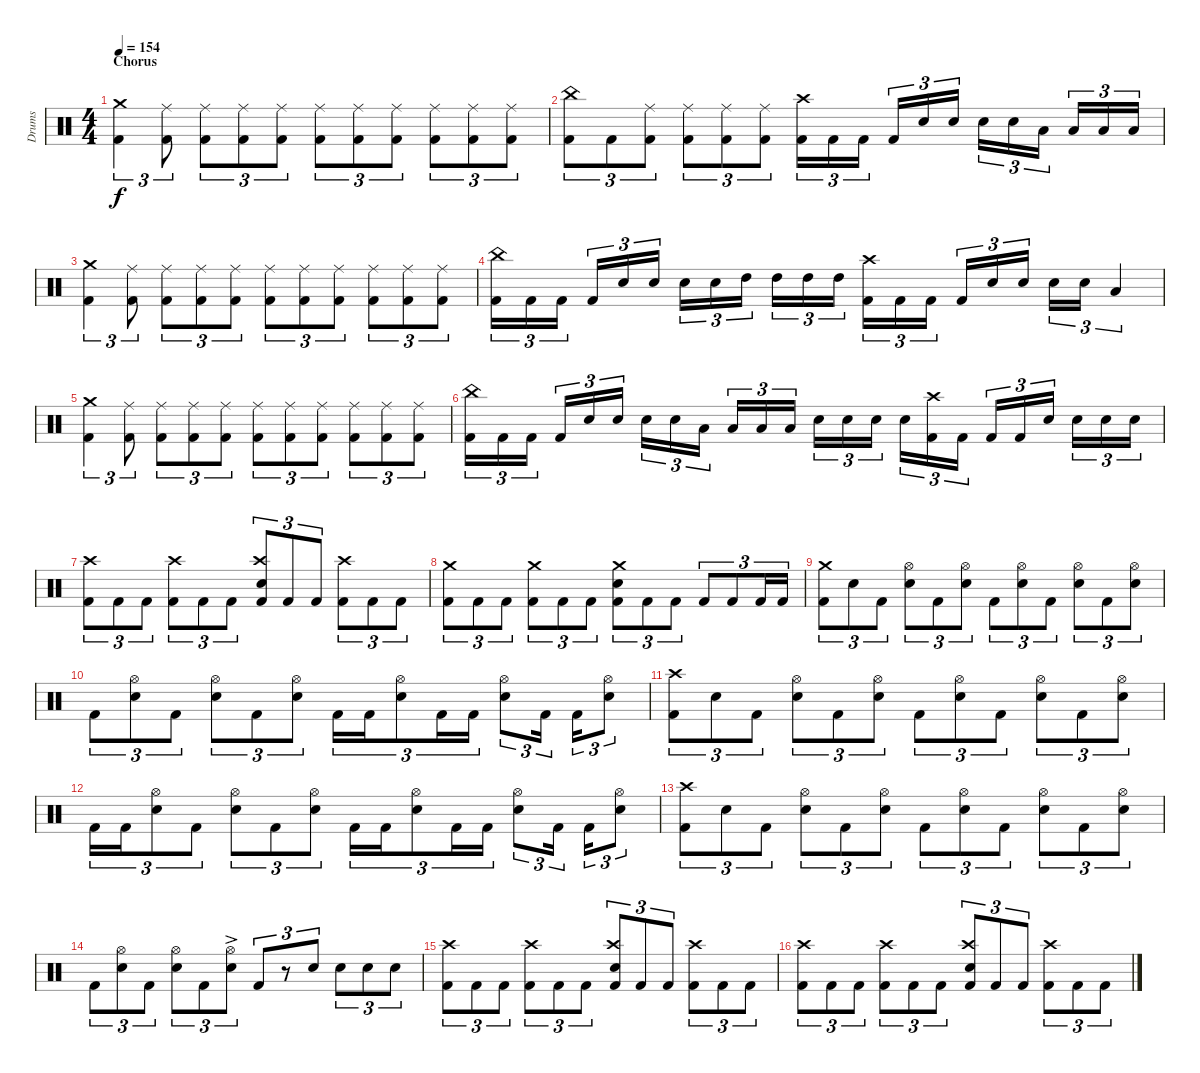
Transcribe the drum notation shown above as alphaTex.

\track ("Drums" "Drums") {instrument percussion}
\staff {score}
\articulation defaults
\ts (4 4)
\section ("" "Chorus")
\tempo 154
\clef neutral
\ks c
("Crash medium (hit)" "Kick (hit) 2").4{tu (3 2) dy f} ("Ride (middle)" "Kick (hit) 2").8{tu (3 2)} ("Ride (middle)" "Kick (hit) 2").8{tu (3 2)} ("Ride (middle)" "Kick (hit) 2").8{tu (3 2)} ("Ride (middle)" "Kick (hit) 2").8{tu (3 2)} ("Ride (middle)" "Kick (hit) 2").8{tu (3 2)} ("Ride (middle)" "Kick (hit) 2").8{tu (3 2)} ("Ride (middle)" "Kick (hit) 2").8{tu (3 2)} ("Ride (middle)" "Kick (hit) 2").8{tu (3 2)} ("Ride (middle)" "Kick (hit) 2").8{tu (3 2)} ("Ride (middle)" "Kick (hit) 2").8{tu (3 2)} |
("China (hit)" "Kick (hit) 2").8{tu (3 2)} "Kick (hit) 2".8{tu (3 2)} ("Ride (middle)" "Kick (hit) 2").8{tu (3 2)} ("Ride (middle)" "Kick (hit) 2").8{tu (3 2)} ("Ride (middle)" "Kick (hit) 2").8{tu (3 2)} ("Ride (middle)" "Kick (hit) 2").8{tu (3 2)} ("Crash high (hit)" "Kick (hit) 2").16{tu (3 2)} "Kick (hit) 2".16{tu (3 2)} "Kick (hit) 2".16{tu (3 2)} "Kick (hit) 2".16{tu (3 2)} "Snare (hit) 2".16{tu (3 2)} "Snare (hit) 2".16{tu (3 2)} "Snare (hit) 2".16{tu (3 2)} "Snare (hit) 2".16{tu (3 2)} "Low Tom (hit)".16{tu (3 2)} "Low Tom (hit)".16{tu (3 2)} "Low Tom (hit)".16{tu (3 2)} "Low Tom (hit)".16{tu (3 2)} |
("Crash medium (hit)" "Kick (hit) 2").4{tu (3 2)} ("Ride (middle)" "Kick (hit) 2").8{tu (3 2)} ("Ride (middle)" "Kick (hit) 2").8{tu (3 2)} ("Ride (middle)" "Kick (hit) 2").8{tu (3 2)} ("Ride (middle)" "Kick (hit) 2").8{tu (3 2)} ("Ride (middle)" "Kick (hit) 2").8{tu (3 2)} ("Ride (middle)" "Kick (hit) 2").8{tu (3 2)} ("Ride (middle)" "Kick (hit) 2").8{tu (3 2)} ("Ride (middle)" "Kick (hit) 2").8{tu (3 2)} ("Ride (middle)" "Kick (hit) 2").8{tu (3 2)} ("Ride (middle)" "Kick (hit) 2").8{tu (3 2)} |
("China (hit)" "Kick (hit) 2").16{tu (3 2)} "Kick (hit) 2".16{tu (3 2)} "Kick (hit) 2".16{tu (3 2)} "Kick (hit) 2".16{tu (3 2)} "Snare (hit) 2".16{tu (3 2)} "Snare (hit) 2".16{tu (3 2)} "Snare (hit) 2".16{tu (3 2)} "Snare (hit) 2".16{tu (3 2)} "High Tom (hit)".16{tu (3 2)} "High Tom (hit)".16{tu (3 2)} "High Tom (hit)".16{tu (3 2)} "High Tom (hit)".16{tu (3 2)} ("Crash high (hit)" "Kick (hit) 2").16{tu (3 2)} "Kick (hit) 2".16{tu (3 2)} "Kick (hit) 2".16{tu (3 2)} "Kick (hit) 2".16{tu (3 2)} "Snare (hit) 2".16{tu (3 2)} "Snare (hit) 2".16{tu (3 2)} "Snare (hit) 2".16{tu (3 2)} "Snare (hit) 2".16{tu (3 2)} "Low Tom (hit)".4{tu (3 2)} |
("Crash medium (hit)" "Kick (hit) 2").4{tu (3 2)} ("Ride (middle)" "Kick (hit) 2").8{tu (3 2)} ("Ride (middle)" "Kick (hit) 2").8{tu (3 2)} ("Ride (middle)" "Kick (hit) 2").8{tu (3 2)} ("Ride (middle)" "Kick (hit) 2").8{tu (3 2)} ("Ride (middle)" "Kick (hit) 2").8{tu (3 2)} ("Ride (middle)" "Kick (hit) 2").8{tu (3 2)} ("Ride (middle)" "Kick (hit) 2").8{tu (3 2)} ("Ride (middle)" "Kick (hit) 2").8{tu (3 2)} ("Ride (middle)" "Kick (hit) 2").8{tu (3 2)} ("Ride (middle)" "Kick (hit) 2").8{tu (3 2)} |
("China (hit)" "Kick (hit) 2").16{tu (3 2)} "Kick (hit) 2".16{tu (3 2)} "Kick (hit) 2".16{tu (3 2)} "Kick (hit) 2".16{tu (3 2)} "Snare (hit) 2".16{tu (3 2)} "Snare (hit) 2".16{tu (3 2)} "Snare (hit) 2".16{tu (3 2)} "Snare (hit) 2".16{tu (3 2)} "Low Tom (hit)".16{tu (3 2)} "Low Tom (hit)".16{tu (3 2)} "Low Tom (hit)".16{tu (3 2)} "Low Tom (hit)".16{tu (3 2)} "Snare (hit) 2".16{tu (3 2)} "Snare (hit) 2".16{tu (3 2)} "Snare (hit) 2".16{tu (3 2)} "Snare (hit) 2".16{tu (3 2)} ("Crash high (hit)" "Kick (hit) 2").16{tu (3 2)} "Kick (hit) 2".16{tu (3 2)} "Kick (hit) 2".16{tu (3 2)} "Kick (hit) 2".16{tu (3 2)} "Snare (hit) 2".16{tu (3 2)} "Snare (hit) 2".16{tu (3 2)} "Snare (hit) 2".16{tu (3 2)} "Snare (hit) 2".16{tu (3 2)} |
("Crash high (hit)" "Kick (hit) 2").8{tu (3 2)} "Kick (hit) 2".8{tu (3 2)} "Kick (hit) 2".8{tu (3 2)} ("Crash high (hit)" "Kick (hit) 2").8{tu (3 2)} "Kick (hit) 2".8{tu (3 2)} "Kick (hit) 2".8{tu (3 2)} ("Crash high (hit)" "Snare (hit) 2" "Kick (hit) 2").8{tu (3 2)} "Kick (hit) 2".8{tu (3 2)} "Kick (hit) 2".8{tu (3 2)} ("Crash high (hit)" "Kick (hit) 2").8{tu (3 2)} "Kick (hit) 2".8{tu (3 2)} "Kick (hit) 2".8{tu (3 2)} |
("Crash medium (hit)" "Kick (hit) 2").8{tu (3 2)} "Kick (hit) 2".8{tu (3 2)} "Kick (hit) 2".8{tu (3 2)} ("Crash medium (hit)" "Kick (hit) 2").8{tu (3 2)} "Kick (hit) 2".8{tu (3 2)} "Kick (hit) 2".8{tu (3 2)} ("Crash medium (hit)" "Snare (hit) 2" "Kick (hit) 2").8{tu (3 2)} "Kick (hit) 2".8{tu (3 2)} "Kick (hit) 2".8{tu (3 2)} "Kick (hit) 2".8{tu (3 2)} "Kick (hit) 2".8{tu (3 2)} "Kick (hit) 2".16{tu (3 2)} "Kick (hit) 2".16{tu (3 2)} |
("Crash medium (hit)" "Kick (hit) 2").8{tu (3 2)} "Snare (hit) 2".8{tu (3 2)} "Kick (hit) 2".8{tu (3 2)} ("Hi-Hat (open)" "Snare (hit) 2").8{tu (3 2)} "Kick (hit) 2".8{tu (3 2)} ("Hi-Hat (open)" "Snare (hit) 2").8{tu (3 2)} "Kick (hit) 2".8{tu (3 2)} ("Hi-Hat (open)" "Snare (hit) 2").8{tu (3 2)} "Kick (hit) 2".8{tu (3 2)} ("Hi-Hat (open)" "Snare (hit) 2").8{tu (3 2)} "Kick (hit) 2".8{tu (3 2)} ("Hi-Hat (open)" "Snare (hit) 2").8{tu (3 2)} |
"Kick (hit) 2".8{tu (3 2)} ("Hi-Hat (open)" "Snare (hit) 2").8{tu (3 2)} "Kick (hit) 2".8{tu (3 2)} ("Hi-Hat (open)" "Snare (hit) 2").8{tu (3 2)} "Kick (hit) 2".8{tu (3 2)} ("Hi-Hat (open)" "Snare (hit) 2").8{tu (3 2)} "Kick (hit) 2".16{tu (3 2)} "Kick (hit) 2".16{tu (3 2)} ("Hi-Hat (open)" "Snare (hit) 2").8{tu (3 2)} "Kick (hit) 2".16{tu (3 2)} "Kick (hit) 2".16{tu (3 2)} ("Hi-Hat (open)" "Snare (hit) 2").8{tu (3 2)} "Kick (hit) 2".16{tu (3 2)} "Kick (hit) 2".16{tu (3 2)} ("Hi-Hat (open)" "Snare (hit) 2").8{tu (3 2)} |
("Crash high (hit)" "Kick (hit) 2").8{tu (3 2)} "Snare (hit) 2".8{tu (3 2)} "Kick (hit) 2".8{tu (3 2)} ("Hi-Hat (open)" "Snare (hit) 2").8{tu (3 2)} "Kick (hit) 2".8{tu (3 2)} ("Hi-Hat (open)" "Snare (hit) 2").8{tu (3 2)} "Kick (hit) 2".8{tu (3 2)} ("Hi-Hat (open)" "Snare (hit) 2").8{tu (3 2)} "Kick (hit) 2".8{tu (3 2)} ("Hi-Hat (open)" "Snare (hit) 2").8{tu (3 2)} "Kick (hit) 2".8{tu (3 2)} ("Hi-Hat (open)" "Snare (hit) 2").8{tu (3 2)} |
"Kick (hit) 2".16{tu (3 2)} "Kick (hit) 2".16{tu (3 2)} ("Hi-Hat (open)" "Snare (hit) 2").8{tu (3 2)} "Kick (hit) 2".8{tu (3 2)} ("Hi-Hat (open)" "Snare (hit) 2").8{tu (3 2)} "Kick (hit) 2".8{tu (3 2)} ("Hi-Hat (open)" "Snare (hit) 2").8{tu (3 2)} "Kick (hit) 2".16{tu (3 2)} "Kick (hit) 2".16{tu (3 2)} ("Hi-Hat (open)" "Snare (hit) 2").8{tu (3 2)} "Kick (hit) 2".16{tu (3 2)} "Kick (hit) 2".16{tu (3 2)} ("Hi-Hat (open)" "Snare (hit) 2").8{tu (3 2)} "Kick (hit) 2".16{tu (3 2)} "Kick (hit) 2".16{tu (3 2)} ("Hi-Hat (open)" "Snare (hit) 2").8{tu (3 2)} |
("Crash high (hit)" "Kick (hit) 2").8{tu (3 2)} "Snare (hit) 2".8{tu (3 2)} "Kick (hit) 2".8{tu (3 2)} ("Hi-Hat (open)" "Snare (hit) 2").8{tu (3 2)} "Kick (hit) 2".8{tu (3 2)} ("Hi-Hat (open)" "Snare (hit) 2").8{tu (3 2)} "Kick (hit) 2".8{tu (3 2)} ("Hi-Hat (open)" "Snare (hit) 2").8{tu (3 2)} "Kick (hit) 2".8{tu (3 2)} ("Hi-Hat (open)" "Snare (hit) 2").8{tu (3 2)} "Kick (hit) 2".8{tu (3 2)} ("Hi-Hat (open)" "Snare (hit) 2").8{tu (3 2)} |
"Kick (hit) 2".8{tu (3 2)} ("Hi-Hat (open)" "Snare (hit) 2").8{tu (3 2)} "Kick (hit) 2".8{tu (3 2)} ("Hi-Hat (open)" "Snare (hit) 2").8{tu (3 2)} "Kick (hit) 2".8{tu (3 2)} ("Hi-Hat (open)" "Snare (hit) 2"{ac}).8{tu (3 2)} "Kick (hit) 2".8{tu (3 2)} r.8{tu (3 2)} "Snare (hit) 2".8{tu (3 2)} "Snare (hit) 2".8{tu (3 2)} "Snare (hit) 2".8{tu (3 2)} "Snare (hit) 2".8{tu (3 2)} |
("Crash high (hit)" "Kick (hit) 2").8{tu (3 2)} "Kick (hit) 2".8{tu (3 2)} "Kick (hit) 2".8{tu (3 2)} ("Crash high (hit)" "Kick (hit) 2").8{tu (3 2)} "Kick (hit) 2".8{tu (3 2)} "Kick (hit) 2".8{tu (3 2)} ("Crash high (hit)" "Snare (hit) 2" "Kick (hit) 2").8{tu (3 2)} "Kick (hit) 2".8{tu (3 2)} "Kick (hit) 2".8{tu (3 2)} ("Crash high (hit)" "Kick (hit) 2").8{tu (3 2)} "Kick (hit) 2".8{tu (3 2)} "Kick (hit) 2".8{tu (3 2)} |
("Crash high (hit)" "Kick (hit) 2").8{tu (3 2)} "Kick (hit) 2".8{tu (3 2)} "Kick (hit) 2".8{tu (3 2)} ("Crash high (hit)" "Kick (hit) 2").8{tu (3 2)} "Kick (hit) 2".8{tu (3 2)} "Kick (hit) 2".8{tu (3 2)} ("Crash high (hit)" "Snare (hit) 2" "Kick (hit) 2").8{tu (3 2)} "Kick (hit) 2".8{tu (3 2)} "Kick (hit) 2".8{tu (3 2)} ("Crash high (hit)" "Kick (hit) 2").8{tu (3 2)} "Kick (hit) 2".8{tu (3 2)} "Kick (hit) 2".8{tu (3 2)}
